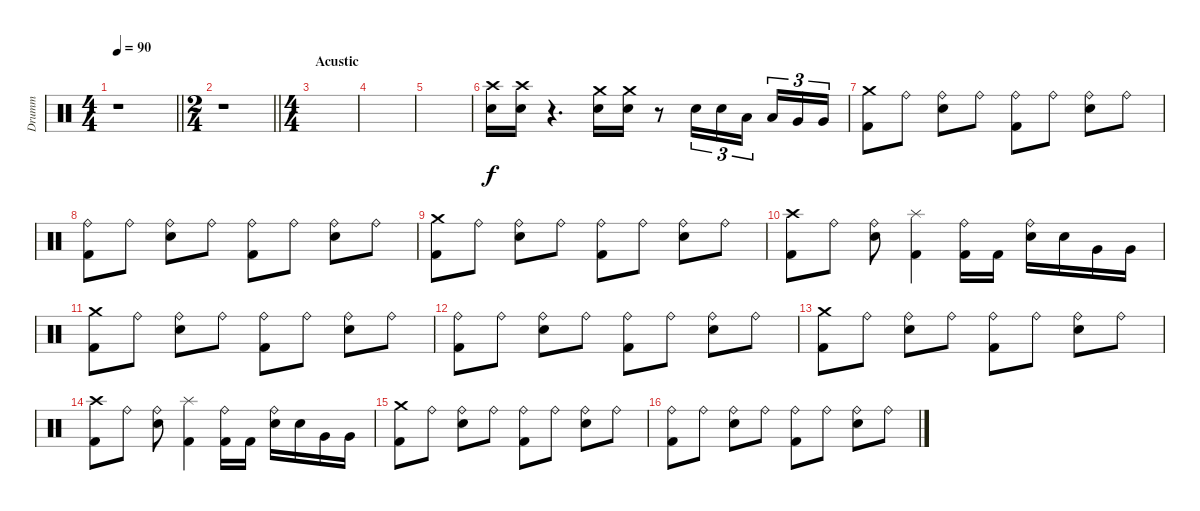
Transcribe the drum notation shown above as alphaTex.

\track ("Drumm" "Drumm") {instrument percussion}
\staff {score}
\articulation defaults
\ts (4 4)
\tempo 90
\clef neutral
\barLineRight lightlight
\ks c
r.1{dy f} |
\ts (2 4)
\barLineRight lightlight
r.1 |
\ts (4 4)
\section ("" "Acustic")
|
|
|
("Crash high (hit)" "Snare (hit) 2").16 ("Crash high (hit)" "Snare (hit) 2").16 r.4{d} ("Crash medium (hit)" "Snare (hit) 2").16 ("Crash medium (hit)" "Snare (hit) 2").16 r.8 "Snare (hit) 2".16{tu (3 2)} "Snare (hit) 2".16{tu (3 2)} "Low Tom (hit)".16{tu (3 2) beam splitsecondary} "Low Tom (hit)".16{tu (3 2)} "Very Low Tom (hit)".16{tu (3 2)} "Very Low Tom (hit)".16{tu (3 2)} |
("Crash medium (hit)" "Kick (hit) 2").8 "Ride (bell)".8 ("Ride (bell)" "Snare (hit) 2").8 "Ride (bell)".8 ("Ride (bell)" "Kick (hit) 2").8 "Ride (bell)".8 ("Ride (bell)" "Snare (hit) 2").8 "Ride (bell)".8 |
("Ride (bell)" "Kick (hit) 2").8 "Ride (bell)".8 ("Ride (bell)" "Snare (hit) 2").8 "Ride (bell)".8 ("Ride (bell)" "Kick (hit) 2").8 "Ride (bell)".8 ("Ride (bell)" "Snare (hit) 2").8 "Ride (bell)".8 |
("Crash medium (hit)" "Kick (hit) 2").8 "Ride (bell)".8 ("Ride (bell)" "Snare (hit) 2").8 "Ride (bell)".8 ("Ride (bell)" "Kick (hit) 2").8 "Ride (bell)".8 ("Ride (bell)" "Snare (hit) 2").8 "Ride (bell)".8 |
("Crash high (hit)" "Kick (hit) 2").8 "Ride (bell)".8 ("Ride (bell)" "Snare (hit) 2").8 ("Splash (hit)" "Kick (hit) 2").4 ("Ride (bell)" "Kick (hit) 2").16 "Kick (hit) 2".16 ("Ride (bell)" "Snare (hit) 2").16 "Snare (hit) 2".16 "Very Low Tom (hit)".16 "Very Low Tom (hit)".16 |
("Crash medium (hit)" "Kick (hit) 2").8 "Ride (bell)".8 ("Ride (bell)" "Snare (hit) 2").8 "Ride (bell)".8 ("Ride (bell)" "Kick (hit) 2").8 "Ride (bell)".8 ("Ride (bell)" "Snare (hit) 2").8 "Ride (bell)".8 |
("Ride (bell)" "Kick (hit) 2").8 "Ride (bell)".8 ("Ride (bell)" "Snare (hit) 2").8 "Ride (bell)".8 ("Ride (bell)" "Kick (hit) 2").8 "Ride (bell)".8 ("Ride (bell)" "Snare (hit) 2").8 "Ride (bell)".8 |
("Crash medium (hit)" "Kick (hit) 2").8 "Ride (bell)".8 ("Ride (bell)" "Snare (hit) 2").8 "Ride (bell)".8 ("Ride (bell)" "Kick (hit) 2").8 "Ride (bell)".8 ("Ride (bell)" "Snare (hit) 2").8 "Ride (bell)".8 |
("Crash high (hit)" "Kick (hit) 2").8 "Ride (bell)".8 ("Ride (bell)" "Snare (hit) 2").8 ("Splash (hit)" "Kick (hit) 2").4 ("Ride (bell)" "Kick (hit) 2").16 "Kick (hit) 2".16 ("Ride (bell)" "Snare (hit) 2").16 "Snare (hit) 2".16 "Very Low Tom (hit)".16 "Very Low Tom (hit)".16 |
("Crash medium (hit)" "Kick (hit) 2").8 "Ride (bell)".8 ("Ride (bell)" "Snare (hit) 2").8 "Ride (bell)".8 ("Ride (bell)" "Kick (hit) 2").8 "Ride (bell)".8 ("Ride (bell)" "Snare (hit) 2").8 "Ride (bell)".8 |
("Ride (bell)" "Kick (hit) 2").8 "Ride (bell)".8 ("Ride (bell)" "Snare (hit) 2").8 "Ride (bell)".8 ("Ride (bell)" "Kick (hit) 2").8 "Ride (bell)".8 ("Ride (bell)" "Snare (hit) 2").8 "Ride (bell)".8
